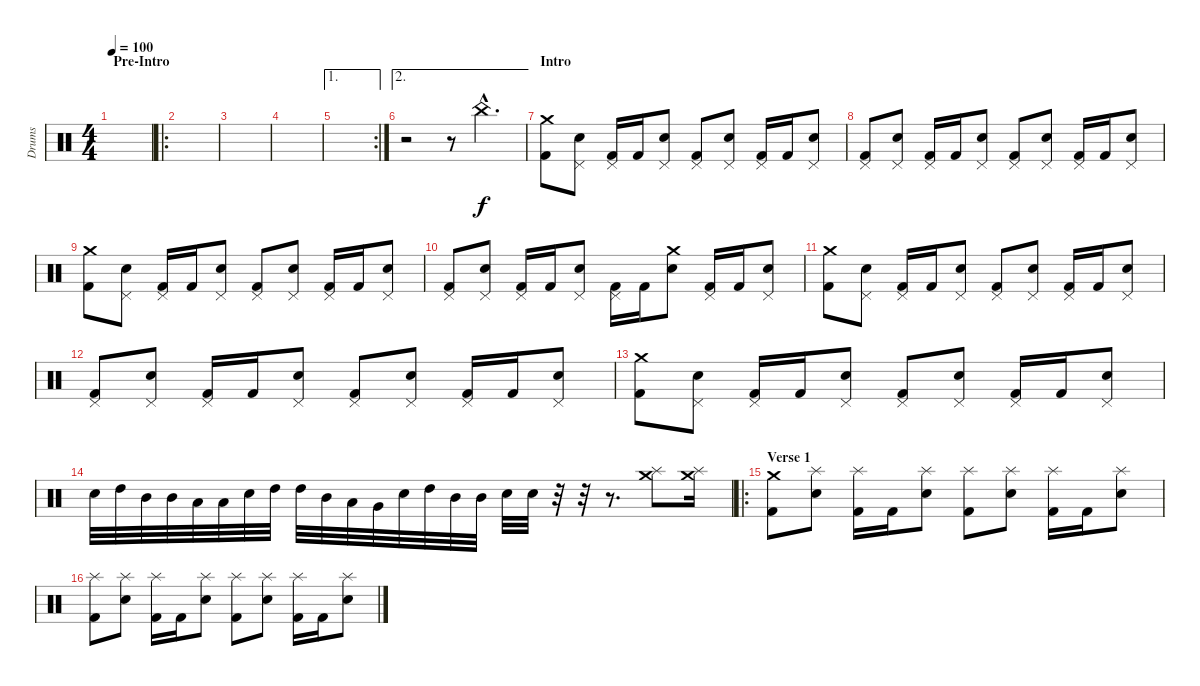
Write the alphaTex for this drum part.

\track ("Drums" "Drums") {instrument percussion}
\staff {score}
\articulation defaults
\ts (4 4)
\section ("" "Pre-Intro")
\tempo 100
\clef neutral
\ks c
|
\ro
|
|
|
\ae 1
\rc 2
|
\ae 2
r.2 r.8 "China (hit)"{hac}.4{d} |
\section ("" "Intro")
("Crash medium (hit)" "Kick (hit) 2").8 ("Pedal Hi-Hat (hit)" "Electric Snare (hit)").8 ("Pedal Hi-Hat (hit)" "Kick (hit) 2").16 "Kick (hit) 2".16 ("Pedal Hi-Hat (hit)" "Electric Snare (hit)").8 ("Pedal Hi-Hat (hit)" "Kick (hit) 2").8 ("Pedal Hi-Hat (hit)" "Electric Snare (hit)").8 ("Pedal Hi-Hat (hit)" "Kick (hit) 2").16 "Kick (hit) 2".16 ("Pedal Hi-Hat (hit)" "Electric Snare (hit)").8 |
("Pedal Hi-Hat (hit)" "Kick (hit) 2").8 ("Pedal Hi-Hat (hit)" "Electric Snare (hit)").8 ("Pedal Hi-Hat (hit)" "Kick (hit) 2").16 "Kick (hit) 2".16 ("Pedal Hi-Hat (hit)" "Electric Snare (hit)").8 ("Pedal Hi-Hat (hit)" "Kick (hit) 2").8 ("Pedal Hi-Hat (hit)" "Electric Snare (hit)").8 ("Pedal Hi-Hat (hit)" "Kick (hit) 2").16 "Kick (hit) 2".16 ("Pedal Hi-Hat (hit)" "Electric Snare (hit)").8 |
("Crash medium (hit)" "Kick (hit) 2").8 ("Pedal Hi-Hat (hit)" "Electric Snare (hit)").8 ("Pedal Hi-Hat (hit)" "Kick (hit) 2").16 "Kick (hit) 2".16 ("Pedal Hi-Hat (hit)" "Electric Snare (hit)").8 ("Pedal Hi-Hat (hit)" "Kick (hit) 2").8 ("Pedal Hi-Hat (hit)" "Electric Snare (hit)").8 ("Pedal Hi-Hat (hit)" "Kick (hit) 2").16 "Kick (hit) 2".16 ("Pedal Hi-Hat (hit)" "Electric Snare (hit)").8 |
("Pedal Hi-Hat (hit)" "Kick (hit) 2").8 ("Pedal Hi-Hat (hit)" "Electric Snare (hit)").8 ("Pedal Hi-Hat (hit)" "Kick (hit) 2").16 "Kick (hit) 2".16 ("Pedal Hi-Hat (hit)" "Electric Snare (hit)").8 ("Pedal Hi-Hat (hit)" "Kick (hit) 2").16 "Kick (hit) 2".16 ("Crash medium (hit)" "Electric Snare (hit)").8 ("Pedal Hi-Hat (hit)" "Kick (hit) 2").16 "Kick (hit) 2".16 ("Pedal Hi-Hat (hit)" "Electric Snare (hit)").8 |
("Crash medium (hit)" "Kick (hit) 2").8 ("Pedal Hi-Hat (hit)" "Electric Snare (hit)").8 ("Pedal Hi-Hat (hit)" "Kick (hit) 2").16 "Kick (hit) 2".16 ("Pedal Hi-Hat (hit)" "Electric Snare (hit)").8 ("Pedal Hi-Hat (hit)" "Kick (hit) 2").8 ("Pedal Hi-Hat (hit)" "Electric Snare (hit)").8 ("Pedal Hi-Hat (hit)" "Kick (hit) 2").16 "Kick (hit) 2".16 ("Pedal Hi-Hat (hit)" "Electric Snare (hit)").8 |
("Pedal Hi-Hat (hit)" "Kick (hit) 2").8 ("Pedal Hi-Hat (hit)" "Electric Snare (hit)").8 ("Pedal Hi-Hat (hit)" "Kick (hit) 2").16 "Kick (hit) 2".16 ("Pedal Hi-Hat (hit)" "Electric Snare (hit)").8 ("Pedal Hi-Hat (hit)" "Kick (hit) 2").8 ("Pedal Hi-Hat (hit)" "Electric Snare (hit)").8 ("Pedal Hi-Hat (hit)" "Kick (hit) 2").16 "Kick (hit) 2".16 ("Pedal Hi-Hat (hit)" "Electric Snare (hit)").8 |
("Crash medium (hit)" "Kick (hit) 2").8 ("Pedal Hi-Hat (hit)" "Electric Snare (hit)").8 ("Pedal Hi-Hat (hit)" "Kick (hit) 2").16 "Kick (hit) 2".16 ("Pedal Hi-Hat (hit)" "Electric Snare (hit)").8 ("Pedal Hi-Hat (hit)" "Kick (hit) 2").8 ("Pedal Hi-Hat (hit)" "Electric Snare (hit)").8 ("Pedal Hi-Hat (hit)" "Kick (hit) 2").16 "Kick (hit) 2".16 ("Pedal Hi-Hat (hit)" "Electric Snare (hit)").8 |
"Electric Snare (hit)".32{volume 12} "High Tom (hit)".32 "Mid Tom (hit)".32 "Mid Tom (hit)".32 "Low Tom (hit)".32 "Low Tom (hit)".32 "Electric Snare (hit)".32 "High Tom (hit)".32 "High Tom (hit)".32 "Mid Tom (hit)".32 "Low Tom (hit)".32 "Very Low Tom (hit)".32 "Electric Snare (hit)".32 "High Tom (hit)".32 "Mid Tom (hit)".32 "Mid Tom (hit)".32 "Electric Snare (hit)".32 "Electric Snare (hit)".32 r.32 r.32 r.8{d} ("Crash medium (hit)" "Splash (hit)").8 ("Crash medium (hit)" "Splash (hit)").16 |
\ro
\section ("" "Verse 1")
("Crash medium (hit)" "Kick (hit) 2").8 ("Splash (hit)" "Electric Snare (hit)").8 ("Splash (hit)" "Kick (hit) 2").16 "Kick (hit) 2".16 ("Splash (hit)" "Electric Snare (hit)").8 ("Splash (hit)" "Kick (hit) 2").8 ("Splash (hit)" "Electric Snare (hit)").8 ("Splash (hit)" "Kick (hit) 2").16 "Kick (hit) 2".16 ("Splash (hit)" "Electric Snare (hit)").8 |
("Splash (hit)" "Kick (hit) 2").8 ("Splash (hit)" "Electric Snare (hit)").8 ("Splash (hit)" "Kick (hit) 2").16 "Kick (hit) 2".16 ("Splash (hit)" "Electric Snare (hit)").8 ("Splash (hit)" "Kick (hit) 2").8 ("Splash (hit)" "Electric Snare (hit)").8 ("Splash (hit)" "Kick (hit) 2").16 "Kick (hit) 2".16 ("Splash (hit)" "Electric Snare (hit)").8
